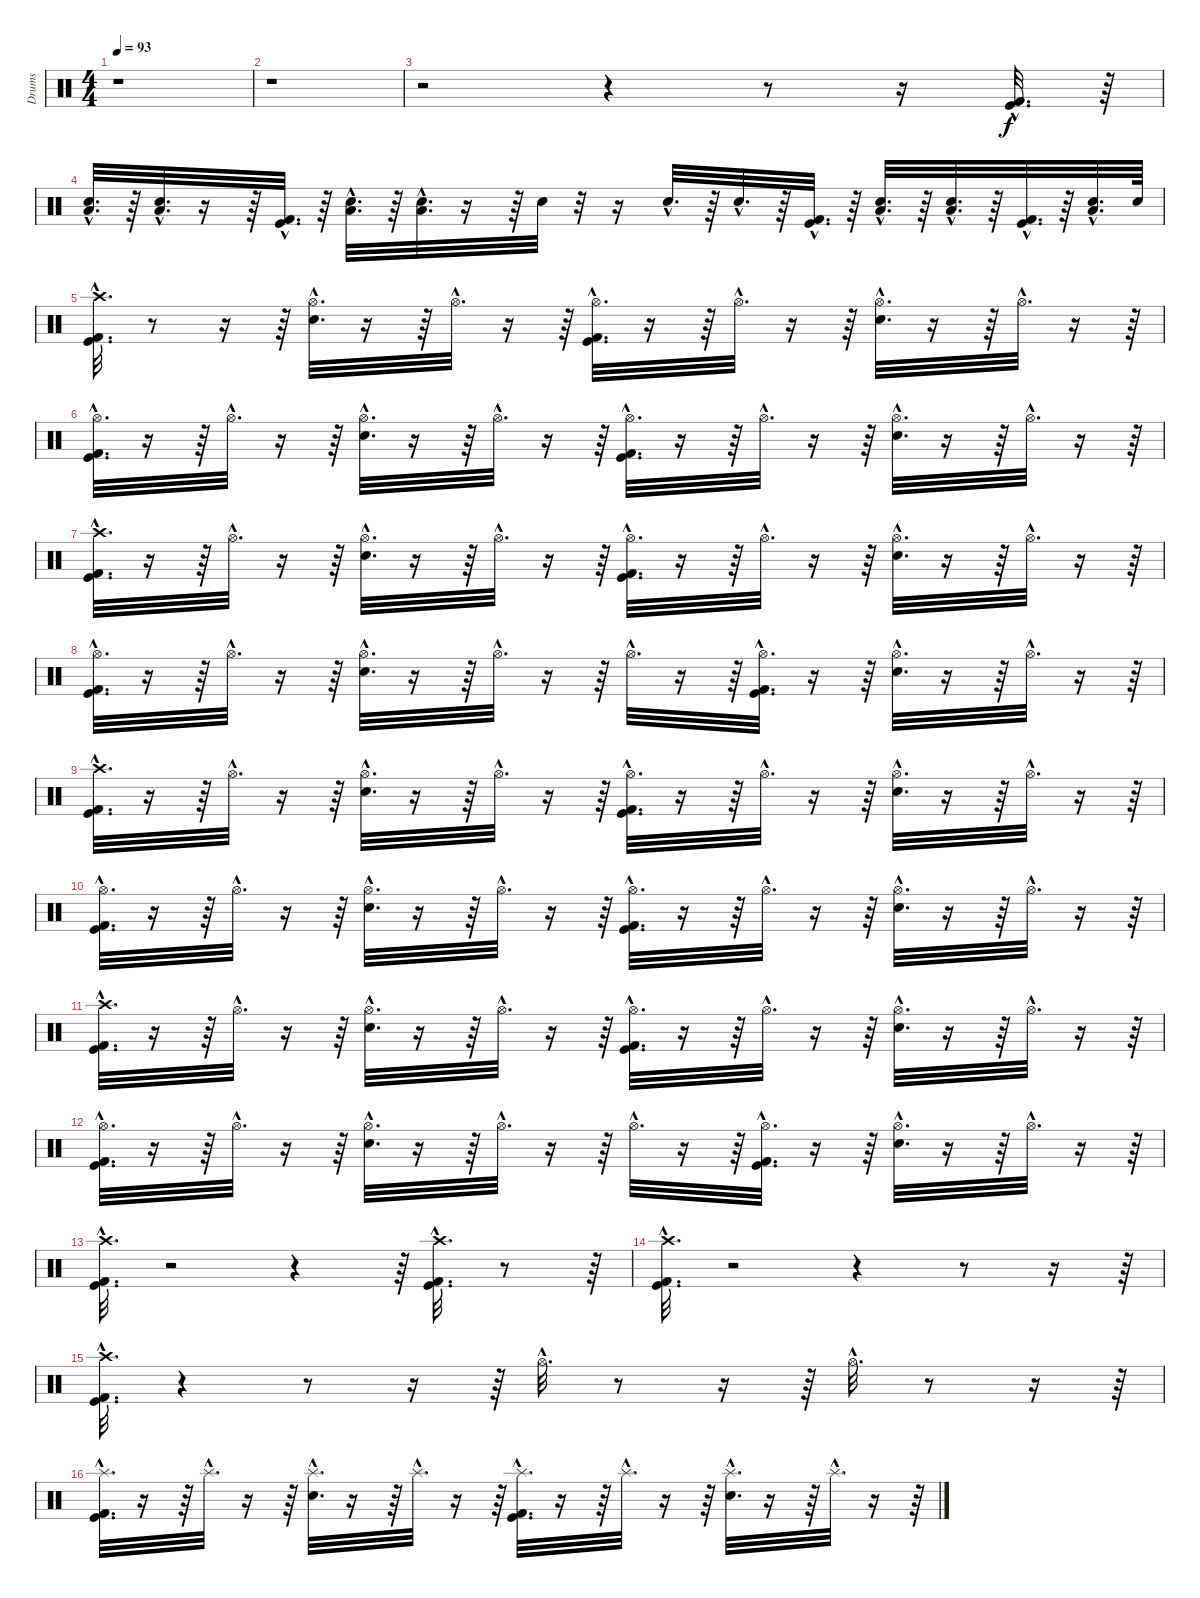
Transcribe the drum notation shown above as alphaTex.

\track ("Drums" "Drums") {instrument percussion}
\staff {score}
\articulation defaults
\ts (4 4)
\tempo 93
\clef neutral
\ks c
r.1{dy f} |
r.1 |
r.2 r.4 r.8 r.16 ("Kick (hit)"{hac} "Kick (hit) 2"{hac}).32{d} r.64 |
("Low Tom (hit)"{hac} "Snare (hit) 2"{hac}).32{d} r.64 ("Low Tom (hit)"{hac} "Snare (hit) 2"{hac}).32{d} r.16 r.64 ("Kick (hit)"{hac} "Kick (hit) 2"{hac}).32{d} r.64 ("Low Tom (hit)"{hac} "Snare (hit) 2"{hac}).32{d} r.64 ("Low Tom (hit)"{hac} "Snare (hit) 2"{hac}).32{d} r.16 r.64 "Snare (hit) 2".32 r.32 r.16 "Snare (hit) 2"{hac}.32{d} r.64 "Snare (hit) 2"{hac}.32{d} r.64 ("Kick (hit)"{hac} "Kick (hit) 2"{hac}).32{d} r.64 ("Low Tom (hit)"{hac} "Snare (hit) 2"{hac}).32{d} r.64 ("Low Tom (hit)"{hac} "Snare (hit) 2"{hac}).32{d} r.64 ("Kick (hit)"{hac} "Kick (hit) 2"{hac}).32{d} r.64 ("Low Tom (hit)"{hac} "Snare (hit) 2"{hac}).32{d} "Snare (hit) 2".64 |
("Kick (hit)"{hac} "Crash high (hit)"{hac} "Kick (hit) 2"{hac}).32{d} r.8 r.16 r.64 ("Hi-Hat (open)"{hac} "Snare (hit) 2"{hac}).32{d} r.16 r.64 "Hi-Hat (open)"{hac}.32{d} r.16 r.64 ("Kick (hit)"{hac} "Hi-Hat (open)"{hac} "Kick (hit) 2"{hac}).32{d} r.16 r.64 "Hi-Hat (open)"{hac}.32{d} r.16 r.64 ("Hi-Hat (open)"{hac} "Snare (hit) 2"{hac}).32{d} r.16 r.64 "Hi-Hat (open)"{hac}.32{d} r.16 r.64 |
("Kick (hit)"{hac} "Hi-Hat (open)"{hac} "Kick (hit) 2"{hac}).32{d} r.16 r.64 "Hi-Hat (open)"{hac}.32{d} r.16 r.64 ("Hi-Hat (open)"{hac} "Snare (hit) 2"{hac}).32{d} r.16 r.64 "Hi-Hat (open)"{hac}.32{d} r.16 r.64 ("Kick (hit)"{hac} "Kick (hit) 2"{hac} "Hi-Hat (open)"{hac}).32{d} r.16 r.64 "Hi-Hat (open)"{hac}.32{d} r.16 r.64 ("Hi-Hat (open)"{hac} "Snare (hit) 2"{hac}).32{d} r.16 r.64 "Hi-Hat (open)"{hac}.32{d} r.16 r.64 |
("Kick (hit)"{hac} "Crash high (hit)"{hac} "Kick (hit) 2"{hac}).32{d} r.16 r.64 "Hi-Hat (open)"{hac}.32{d} r.16 r.64 ("Hi-Hat (open)"{hac} "Snare (hit) 2"{hac}).32{d} r.16 r.64 "Hi-Hat (open)"{hac}.32{d} r.16 r.64 ("Kick (hit)"{hac} "Hi-Hat (open)"{hac} "Kick (hit) 2"{hac}).32{d} r.16 r.64 "Hi-Hat (open)"{hac}.32{d} r.16 r.64 ("Hi-Hat (open)"{hac} "Snare (hit) 2"{hac}).32{d} r.16 r.64 "Hi-Hat (open)"{hac}.32{d} r.16 r.64 |
("Kick (hit)"{hac} "Hi-Hat (open)"{hac} "Kick (hit) 2"{hac}).32{d} r.16 r.64 "Hi-Hat (open)"{hac}.32{d} r.16 r.64 ("Hi-Hat (open)"{hac} "Snare (hit) 2"{hac}).32{d} r.16 r.64 "Hi-Hat (open)"{hac}.32{d} r.16 r.64 "Hi-Hat (open)"{hac}.32{d} r.16 r.64 ("Kick (hit)"{hac} "Hi-Hat (open)"{hac} "Kick (hit) 2"{hac}).32{d} r.16 r.64 ("Hi-Hat (open)"{hac} "Snare (hit) 2"{hac}).32{d} r.16 r.64 "Hi-Hat (open)"{hac}.32{d} r.16 r.64 |
("Kick (hit)"{hac} "Crash high (hit)"{hac} "Kick (hit) 2"{hac}).32{d} r.16 r.64 "Hi-Hat (open)"{hac}.32{d} r.16 r.64 ("Hi-Hat (open)"{hac} "Snare (hit) 2"{hac}).32{d} r.16 r.64 "Hi-Hat (open)"{hac}.32{d} r.16 r.64 ("Kick (hit)"{hac} "Hi-Hat (open)"{hac} "Kick (hit) 2"{hac}).32{d} r.16 r.64 "Hi-Hat (open)"{hac}.32{d} r.16 r.64 ("Hi-Hat (open)"{hac} "Snare (hit) 2"{hac}).32{d} r.16 r.64 "Hi-Hat (open)"{hac}.32{d} r.16 r.64 |
("Kick (hit)"{hac} "Hi-Hat (open)"{hac} "Kick (hit) 2"{hac}).32{d} r.16 r.64 "Hi-Hat (open)"{hac}.32{d} r.16 r.64 ("Hi-Hat (open)"{hac} "Snare (hit) 2"{hac}).32{d} r.16 r.64 "Hi-Hat (open)"{hac}.32{d} r.16 r.64 ("Kick (hit)"{hac} "Hi-Hat (open)"{hac} "Kick (hit) 2"{hac}).32{d} r.16 r.64 "Hi-Hat (open)"{hac}.32{d} r.16 r.64 ("Hi-Hat (open)"{hac} "Snare (hit) 2"{hac}).32{d} r.16 r.64 "Hi-Hat (open)"{hac}.32{d} r.16 r.64 |
("Kick (hit)"{hac} "Crash high (hit)"{hac} "Kick (hit) 2"{hac}).32{d} r.16 r.64 "Hi-Hat (open)"{hac}.32{d} r.16 r.64 ("Hi-Hat (open)"{hac} "Snare (hit) 2"{hac}).32{d} r.16 r.64 "Hi-Hat (open)"{hac}.32{d} r.16 r.64 ("Kick (hit)"{hac} "Hi-Hat (open)"{hac} "Kick (hit) 2"{hac}).32{d} r.16 r.64 "Hi-Hat (open)"{hac}.32{d} r.16 r.64 ("Hi-Hat (open)"{hac} "Snare (hit) 2"{hac}).32{d} r.16 r.64 "Hi-Hat (open)"{hac}.32{d} r.16 r.64 |
("Kick (hit)"{hac} "Hi-Hat (open)"{hac} "Kick (hit) 2"{hac}).32{d} r.16 r.64 "Hi-Hat (open)"{hac}.32{d} r.16 r.64 ("Hi-Hat (open)"{hac} "Snare (hit) 2"{hac}).32{d} r.16 r.64 "Hi-Hat (open)"{hac}.32{d} r.16 r.64 "Hi-Hat (open)"{hac}.32{d} r.16 r.64 ("Kick (hit)"{hac} "Hi-Hat (open)"{hac} "Kick (hit) 2"{hac}).32{d} r.16 r.64 ("Hi-Hat (open)"{hac} "Snare (hit) 2"{hac}).32{d} r.16 r.64 "Hi-Hat (open)"{hac}.32{d} r.16 r.64 |
("Kick (hit)"{hac} "Crash high (hit)"{hac} "Kick (hit) 2"{hac}).32{d} r.2 r.4 r.64 ("Kick (hit)"{hac} "Crash high (hit)"{hac} "Kick (hit) 2"{hac}).32{d} r.8 r.64 |
("Kick (hit)"{hac} "Crash high (hit)"{hac} "Kick (hit) 2"{hac}).32{d} r.2 r.4 r.8 r.16 r.64 |
("Kick (hit)"{hac} "Crash high (hit)"{hac} "Kick (hit) 2"{hac}).32{d} r.4 r.8 r.16 r.64 "Hi-Hat (open)"{hac}.32{d} r.8 r.16 r.64 "Hi-Hat (open)"{hac}.32{d} r.8 r.16 r.64 |
("Kick (hit)"{hac} "Kick (hit) 2"{hac} "Splash (hit)"{hac}).32{d} r.16 r.64 "Splash (hit)"{hac}.32{d} r.16 r.64 ("Snare (hit) 2"{hac} "Splash (hit)"{hac}).32{d} r.16 r.64 "Splash (hit)"{hac}.32{d} r.16 r.64 ("Kick (hit)"{hac} "Kick (hit) 2"{hac} "Splash (hit)"{hac}).32{d} r.16 r.64 "Splash (hit)"{hac}.32{d} r.16 r.64 ("Snare (hit) 2"{hac} "Splash (hit)"{hac}).32{d} r.16 r.64 "Splash (hit)"{hac}.32{d} r.16 r.64
